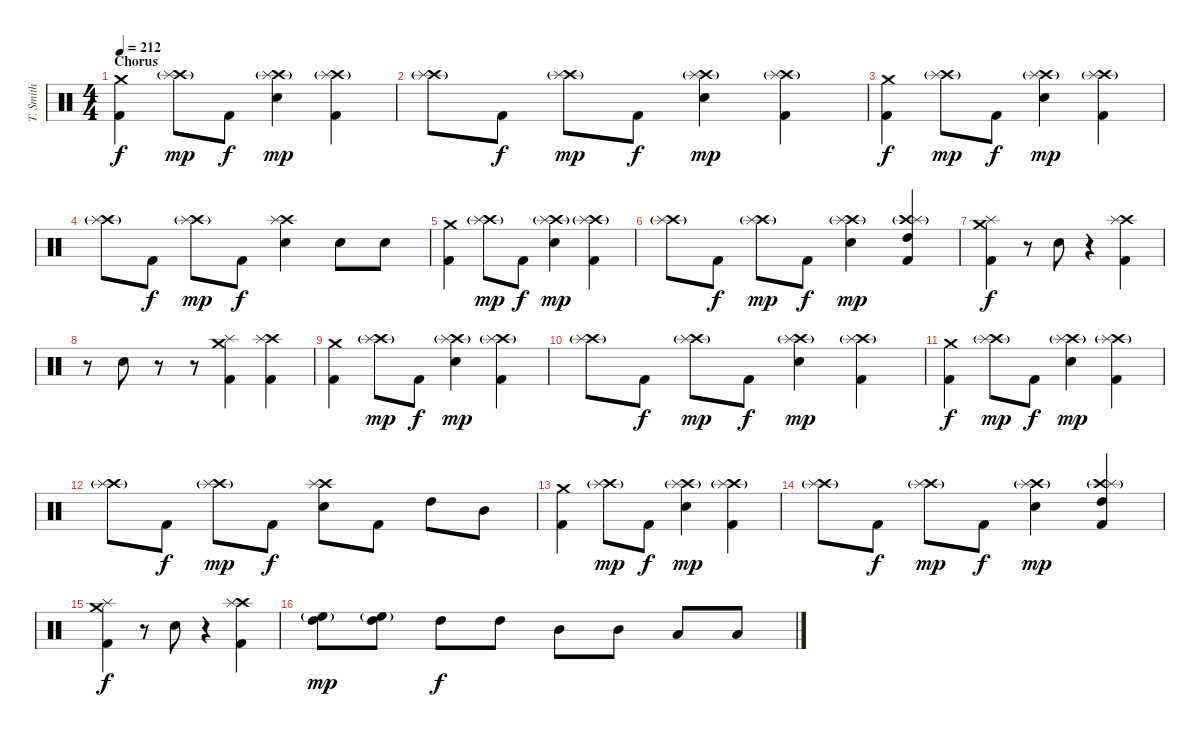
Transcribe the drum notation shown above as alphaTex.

\track ("T. Smith" "T. Smith") {instrument percussion}
\staff {score}
\articulation defaults
\ts (4 4)
\section ("" "Chorus")
\tempo 212
\clef neutral
\ks c
("Crash medium (hit)" "Kick (hit) 2").4{dy f} ("Crash high (hit)"{g} "Splash (hit)").8{dy mp} "Kick (hit) 2".8{dy f} ("Crash high (hit)"{g} "Splash (hit)" "Electric Snare (hit)").4{dy mp} ("Crash high (hit)"{g} "Splash (hit)" "Kick (hit) 2").4 |
("Crash high (hit)"{g} "Splash (hit)").8 "Kick (hit) 2".8{dy f} ("Crash high (hit)"{g} "Splash (hit)").8{dy mp} "Kick (hit) 2".8{dy f} ("Crash high (hit)"{g} "Splash (hit)" "Electric Snare (hit)").4{dy mp} ("Crash high (hit)"{g} "Splash (hit)" "Kick (hit) 2").4 |
("Crash medium (hit)" "Kick (hit) 2").4{dy f} ("Crash high (hit)"{g} "Splash (hit)").8{dy mp} "Kick (hit) 2".8{dy f} ("Crash high (hit)"{g} "Splash (hit)" "Electric Snare (hit)").4{dy mp} ("Crash high (hit)"{g} "Splash (hit)" "Kick (hit) 2").4 |
("Crash high (hit)"{g} "Splash (hit)").8 "Kick (hit) 2".8{dy f} ("Crash high (hit)"{g} "Splash (hit)").8{dy mp} "Kick (hit) 2".8{dy f} ("Crash high (hit)" "Splash (hit)" "Electric Snare (hit)").4 "Electric Snare (hit)".8 "Electric Snare (hit)".8 |
("Crash medium (hit)" "Kick (hit) 2").4 ("Crash high (hit)"{g} "Splash (hit)").8{dy mp} "Kick (hit) 2".8{dy f} ("Crash high (hit)"{g} "Splash (hit)" "Electric Snare (hit)").4{dy mp} ("Crash high (hit)"{g} "Splash (hit)" "Kick (hit) 2").4 |
("Crash high (hit)"{g} "Splash (hit)").8 "Kick (hit) 2".8{dy f} ("Crash high (hit)"{g} "Splash (hit)").8{dy mp} "Kick (hit) 2".8{dy f} ("Crash high (hit)"{g} "Splash (hit)" "Electric Snare (hit)").4{dy mp} ("Crash high (hit)"{g} "Splash (hit)" "High Tom (hit)" "Kick (hit) 2").4 |
("Crash medium (hit)" "Splash (hit)" "Kick (hit) 2").4{dy f} r.8 "Electric Snare (hit)".8 r.4 ("Crash high (hit)" "Splash (hit)" "Kick (hit) 2").4 |
r.8 "Electric Snare (hit)".8 r.8 r.8 ("Crash medium (hit)" "Splash (hit)" "Kick (hit) 2").4 ("Crash high (hit)" "Splash (hit)" "Kick (hit) 2").4 |
("Crash medium (hit)" "Kick (hit) 2").4 ("Crash high (hit)"{g} "Splash (hit)").8{dy mp} "Kick (hit) 2".8{dy f} ("Crash high (hit)"{g} "Splash (hit)" "Electric Snare (hit)").4{dy mp} ("Crash high (hit)"{g} "Splash (hit)" "Kick (hit) 2").4 |
("Crash high (hit)"{g} "Splash (hit)").8 "Kick (hit) 2".8{dy f} ("Crash high (hit)"{g} "Splash (hit)").8{dy mp} "Kick (hit) 2".8{dy f} ("Crash high (hit)"{g} "Splash (hit)" "Electric Snare (hit)").4{dy mp} ("Crash high (hit)"{g} "Splash (hit)" "Kick (hit) 2").4 |
("Crash medium (hit)" "Kick (hit) 2").4{dy f} ("Crash high (hit)"{g} "Splash (hit)").8{dy mp} "Kick (hit) 2".8{dy f} ("Crash high (hit)"{g} "Splash (hit)" "Electric Snare (hit)").4{dy mp} ("Crash high (hit)"{g} "Splash (hit)" "Kick (hit) 2").4 |
("Crash high (hit)"{g} "Splash (hit)").8 "Kick (hit) 2".8{dy f} ("Crash high (hit)"{g} "Splash (hit)").8{dy mp} "Kick (hit) 2".8{dy f} ("Crash high (hit)" "Splash (hit)" "Electric Snare (hit)").8 "Kick (hit) 2".8 "High Tom (hit)".8 "Mid Tom (hit)".8 |
("Crash medium (hit)" "Kick (hit) 2").4 ("Crash high (hit)"{g} "Splash (hit)").8{dy mp} "Kick (hit) 2".8{dy f} ("Crash high (hit)"{g} "Splash (hit)" "Electric Snare (hit)").4{dy mp} ("Crash high (hit)"{g} "Splash (hit)" "Kick (hit) 2").4 |
("Crash high (hit)"{g} "Splash (hit)").8 "Kick (hit) 2".8{dy f} ("Crash high (hit)"{g} "Splash (hit)").8{dy mp} "Kick (hit) 2".8{dy f} ("Crash high (hit)"{g} "Splash (hit)" "Electric Snare (hit)").4{dy mp} ("Crash high (hit)"{g} "Splash (hit)" "High Tom (hit)" "Kick (hit) 2").4 |
("Crash medium (hit)" "Splash (hit)" "Kick (hit) 2").4{dy f} r.8 "Electric Snare (hit)".8 r.4 ("Crash high (hit)" "Splash (hit)" "Kick (hit) 2").4 |
("High Floor Tom (hit)"{g} "High Tom (hit)").8{dy mp} ("High Floor Tom (hit)"{g} "High Tom (hit)").8 "High Tom (hit)".8{dy f} "High Tom (hit)".8 "Mid Tom (hit)".8 "Mid Tom (hit)".8 "Low Tom (hit)".8 "Low Tom (hit)".8
